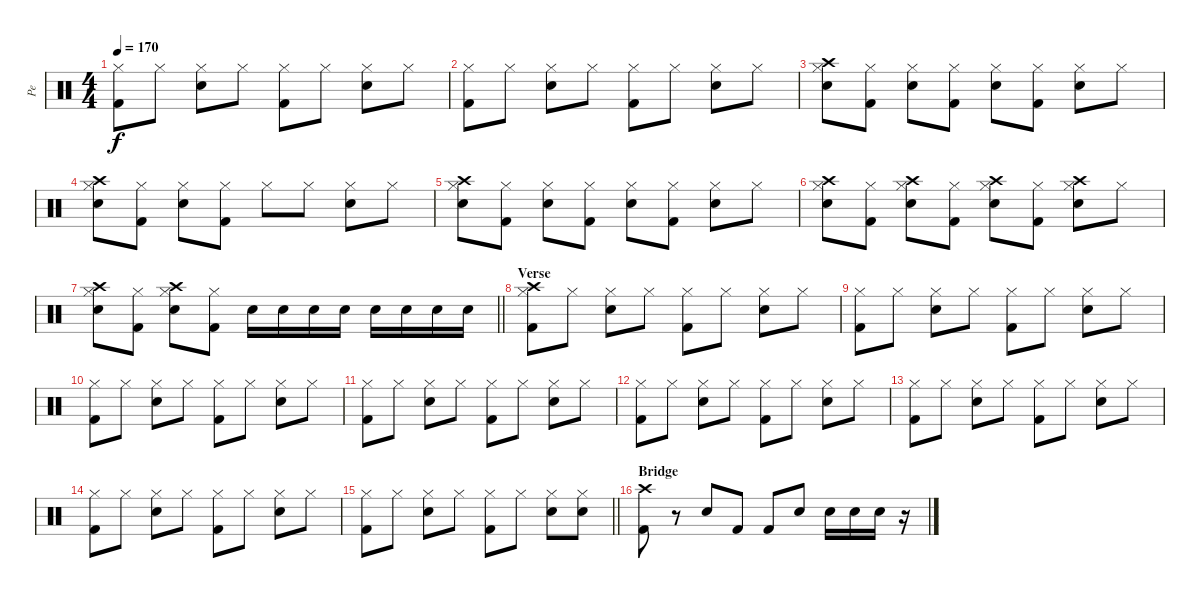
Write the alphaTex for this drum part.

\track ("Pe" "Pe") {instrument percussion}
\staff {score}
\articulation defaults
\ts (4 4)
\tempo 170
\clef neutral
\ks c
("Hi-Hat (closed)" "Kick (hit) 2").8{dy f} "Hi-Hat (closed)".8 ("Hi-Hat (closed)" "Snare (hit) 2").8 "Hi-Hat (closed)".8 ("Hi-Hat (closed)" "Kick (hit) 2").8 "Hi-Hat (closed)".8 ("Hi-Hat (closed)" "Snare (hit) 2").8 "Hi-Hat (closed)".8 |
("Hi-Hat (closed)" "Kick (hit) 2").8 "Hi-Hat (closed)".8 ("Hi-Hat (closed)" "Snare (hit) 2").8 "Hi-Hat (closed)".8 ("Hi-Hat (closed)" "Kick (hit) 2").8 "Hi-Hat (closed)".8 ("Hi-Hat (closed)" "Snare (hit) 2").8 "Hi-Hat (closed)".8 |
("Crash high (hit)" "Hi-Hat (closed)" "Snare (hit) 2").8 ("Hi-Hat (closed)" "Kick (hit) 2").8 ("Hi-Hat (closed)" "Snare (hit) 2").8 ("Hi-Hat (closed)" "Kick (hit) 2").8 ("Hi-Hat (closed)" "Snare (hit) 2").8 ("Hi-Hat (closed)" "Kick (hit) 2").8 ("Hi-Hat (closed)" "Snare (hit) 2").8 "Hi-Hat (closed)".8 |
("Crash high (hit)" "Hi-Hat (closed)" "Snare (hit) 2").8 ("Hi-Hat (closed)" "Kick (hit) 2").8 ("Hi-Hat (closed)" "Snare (hit) 2").8 ("Hi-Hat (closed)" "Kick (hit) 2").8 "Hi-Hat (closed)".8 "Hi-Hat (closed)".8 ("Hi-Hat (closed)" "Snare (hit) 2").8 "Hi-Hat (closed)".8 |
("Crash high (hit)" "Hi-Hat (closed)" "Snare (hit) 2").8 ("Hi-Hat (closed)" "Kick (hit) 2").8 ("Hi-Hat (closed)" "Snare (hit) 2").8 ("Hi-Hat (closed)" "Kick (hit) 2").8 ("Hi-Hat (closed)" "Snare (hit) 2").8 ("Hi-Hat (closed)" "Kick (hit) 2").8 ("Hi-Hat (closed)" "Snare (hit) 2").8 "Hi-Hat (closed)".8 |
("Crash high (hit)" "Hi-Hat (closed)" "Snare (hit) 2").8 ("Hi-Hat (closed)" "Kick (hit) 2").8 ("Crash high (hit)" "Hi-Hat (closed)" "Snare (hit) 2").8 ("Hi-Hat (closed)" "Kick (hit) 2").8 ("Crash high (hit)" "Hi-Hat (closed)" "Snare (hit) 2").8 ("Hi-Hat (closed)" "Kick (hit) 2").8 ("Crash high (hit)" "Hi-Hat (closed)" "Snare (hit) 2").8 "Hi-Hat (closed)".8 |
\barLineRight lightlight
("Crash high (hit)" "Hi-Hat (closed)" "Snare (hit) 2").8 ("Hi-Hat (closed)" "Kick (hit) 2").8 ("Crash high (hit)" "Hi-Hat (closed)" "Snare (hit) 2").8 ("Hi-Hat (closed)" "Kick (hit) 2").8 "Snare (hit) 2".16 "Snare (hit) 2".16 "Snare (hit) 2".16 "Snare (hit) 2".16 "Snare (hit) 2".16 "Snare (hit) 2".16 "Snare (hit) 2".16 "Snare (hit) 2".16 |
\section ("" "Verse")
("Crash high (hit)" "Hi-Hat (closed)" "Kick (hit) 2").8 "Hi-Hat (closed)".8 ("Hi-Hat (closed)" "Snare (hit) 2").8 "Hi-Hat (closed)".8 ("Hi-Hat (closed)" "Kick (hit) 2").8 "Hi-Hat (closed)".8 ("Hi-Hat (closed)" "Snare (hit) 2").8 "Hi-Hat (closed)".8 |
("Hi-Hat (closed)" "Kick (hit) 2").8 "Hi-Hat (closed)".8 ("Hi-Hat (closed)" "Snare (hit) 2").8 "Hi-Hat (closed)".8 ("Hi-Hat (closed)" "Kick (hit) 2").8 "Hi-Hat (closed)".8 ("Hi-Hat (closed)" "Snare (hit) 2").8 "Hi-Hat (closed)".8 |
("Hi-Hat (closed)" "Kick (hit) 2").8 "Hi-Hat (closed)".8 ("Hi-Hat (closed)" "Snare (hit) 2").8 "Hi-Hat (closed)".8 ("Hi-Hat (closed)" "Kick (hit) 2").8 "Hi-Hat (closed)".8 ("Hi-Hat (closed)" "Snare (hit) 2").8 "Hi-Hat (closed)".8 |
("Hi-Hat (closed)" "Kick (hit) 2").8 "Hi-Hat (closed)".8 ("Hi-Hat (closed)" "Snare (hit) 2").8 "Hi-Hat (closed)".8 ("Hi-Hat (closed)" "Kick (hit) 2").8 "Hi-Hat (closed)".8 ("Hi-Hat (closed)" "Snare (hit) 2").8 "Hi-Hat (closed)".8 |
("Hi-Hat (closed)" "Kick (hit) 2").8 "Hi-Hat (closed)".8 ("Hi-Hat (closed)" "Snare (hit) 2").8 "Hi-Hat (closed)".8 ("Hi-Hat (closed)" "Kick (hit) 2").8 "Hi-Hat (closed)".8 ("Hi-Hat (closed)" "Snare (hit) 2").8 "Hi-Hat (closed)".8 |
("Hi-Hat (closed)" "Kick (hit) 2").8 "Hi-Hat (closed)".8 ("Hi-Hat (closed)" "Snare (hit) 2").8 "Hi-Hat (closed)".8 ("Hi-Hat (closed)" "Kick (hit) 2").8 "Hi-Hat (closed)".8 ("Hi-Hat (closed)" "Snare (hit) 2").8 "Hi-Hat (closed)".8 |
("Hi-Hat (closed)" "Kick (hit) 2").8 "Hi-Hat (closed)".8 ("Hi-Hat (closed)" "Snare (hit) 2").8 "Hi-Hat (closed)".8 ("Hi-Hat (closed)" "Kick (hit) 2").8 "Hi-Hat (closed)".8 ("Hi-Hat (closed)" "Snare (hit) 2").8 "Hi-Hat (closed)".8 |
\barLineRight lightlight
("Hi-Hat (closed)" "Kick (hit) 2").8 "Hi-Hat (closed)".8 ("Hi-Hat (closed)" "Snare (hit) 2").8 "Hi-Hat (closed)".8 ("Hi-Hat (closed)" "Kick (hit) 2").8 "Hi-Hat (closed)".8 ("Hi-Hat (closed)" "Snare (hit) 2").8 ("Hi-Hat (closed)" "Snare (hit) 2").8 |
\section ("" "Bridge")
("Crash high (hit)" "Kick (hit) 2").8 r.8 "Snare (hit) 2".8 "Kick (hit) 2".8 "Kick (hit) 2".8 "Snare (hit) 2".8 "Snare (hit) 2".16 "Snare (hit) 2".16 "Snare (hit) 2".16 r.16
